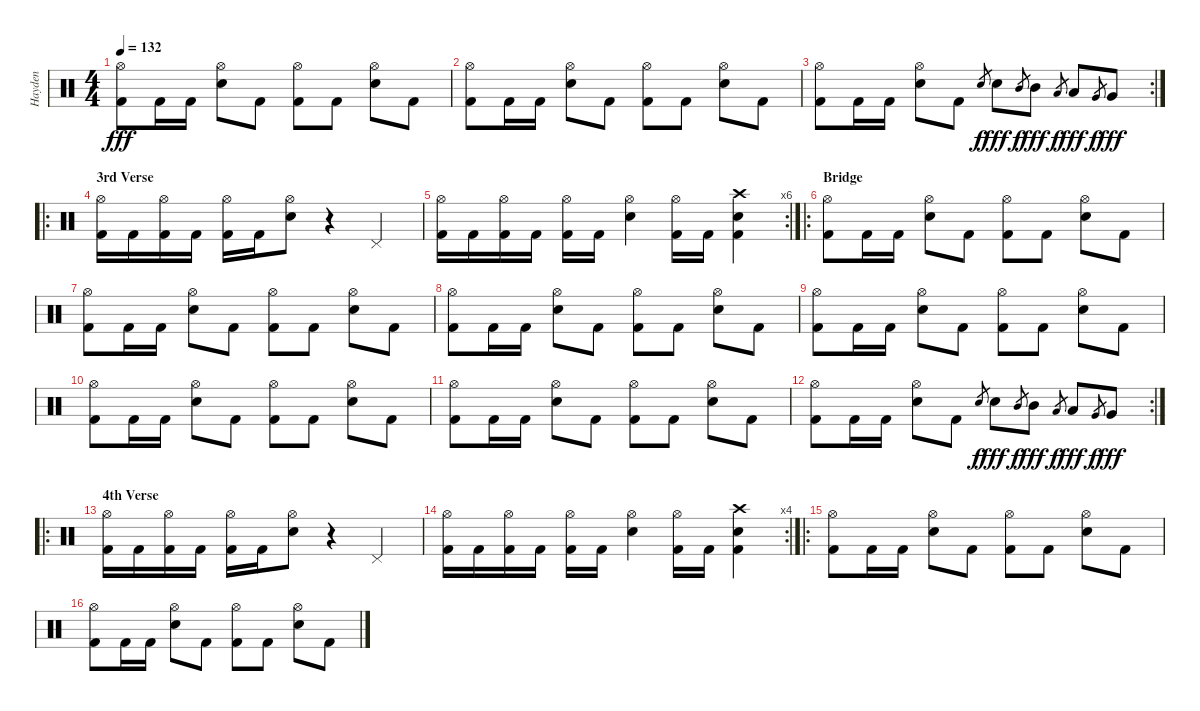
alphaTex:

\track ("Hayden" "Hayden") {instrument percussion}
\staff {score}
\articulation defaults
\ts (4 4)
\tempo 132
\clef neutral
\ks c
("Kick (hit) 2" "Hi-Hat (open)").8{dy fff} "Kick (hit) 2".16 "Kick (hit) 2".16 ("Hi-Hat (open)" "Electric Snare (hit)").8 "Kick (hit) 2".8 ("Hi-Hat (open)" "Kick (hit) 2").8 "Kick (hit) 2".8 ("Hi-Hat (open)" "Electric Snare (hit)").8 "Kick (hit) 2".8 |
("Kick (hit) 2" "Hi-Hat (open)").8 "Kick (hit) 2".16 "Kick (hit) 2".16 ("Hi-Hat (open)" "Electric Snare (hit)").8 "Kick (hit) 2".8 ("Hi-Hat (open)" "Kick (hit) 2").8 "Kick (hit) 2".8 ("Hi-Hat (open)" "Electric Snare (hit)").8 "Kick (hit) 2".8 |
\rc 2
("Kick (hit) 2" "Hi-Hat (open)").8 "Kick (hit) 2".16 "Kick (hit) 2".16 ("Hi-Hat (open)" "Electric Snare (hit)").8 "Kick (hit) 2".8 "Electric Snare (hit)".8{gr dy f} "Electric Snare (hit)".8{dy fff} "Mid Tom (hit)".8{gr dy f} "Mid Tom (hit)".8{dy fff} "Low Tom (hit)".8{gr dy f} "Low Tom (hit)".8{dy fff} "Very Low Tom (hit)".8{gr dy f} "Very Low Tom (hit)".8{dy fff} |
\ro
\section ("" "3rd Verse")
("Hi-Hat (open)" "Kick (hit) 2").16 "Kick (hit) 2".16 ("Hi-Hat (open)" "Kick (hit) 2").16 "Kick (hit) 2".16 ("Hi-Hat (open)" "Kick (hit) 2").16 "Kick (hit) 2".16 ("Hi-Hat (open)" "Electric Snare (hit)").8 r.4 "Pedal Hi-Hat (hit)".4 |
\rc 6
("Hi-Hat (open)" "Kick (hit) 2").16 "Kick (hit) 2".16 ("Hi-Hat (open)" "Kick (hit) 2").16 "Kick (hit) 2".16 ("Hi-Hat (open)" "Kick (hit) 2").16 "Kick (hit) 2".16 ("Hi-Hat (open)" "Electric Snare (hit)").4 ("Hi-Hat (open)" "Kick (hit) 2").16 "Kick (hit) 2".16 ("Crash high (hit)" "Electric Snare (hit)" "Kick (hit) 2").4 |
\ro
\section ("" "Bridge")
("Kick (hit) 2" "Hi-Hat (open)").8 "Kick (hit) 2".16 "Kick (hit) 2".16 ("Hi-Hat (open)" "Electric Snare (hit)").8 "Kick (hit) 2".8 ("Hi-Hat (open)" "Kick (hit) 2").8 "Kick (hit) 2".8 ("Hi-Hat (open)" "Electric Snare (hit)").8 "Kick (hit) 2".8 |
("Kick (hit) 2" "Hi-Hat (open)").8 "Kick (hit) 2".16 "Kick (hit) 2".16 ("Hi-Hat (open)" "Electric Snare (hit)").8 "Kick (hit) 2".8 ("Hi-Hat (open)" "Kick (hit) 2").8 "Kick (hit) 2".8 ("Hi-Hat (open)" "Electric Snare (hit)").8 "Kick (hit) 2".8 |
("Kick (hit) 2" "Hi-Hat (open)").8 "Kick (hit) 2".16 "Kick (hit) 2".16 ("Hi-Hat (open)" "Electric Snare (hit)").8 "Kick (hit) 2".8 ("Hi-Hat (open)" "Kick (hit) 2").8 "Kick (hit) 2".8 ("Hi-Hat (open)" "Electric Snare (hit)").8 "Kick (hit) 2".8 |
("Kick (hit) 2" "Hi-Hat (open)").8 "Kick (hit) 2".16 "Kick (hit) 2".16 ("Hi-Hat (open)" "Electric Snare (hit)").8 "Kick (hit) 2".8 ("Hi-Hat (open)" "Kick (hit) 2").8 "Kick (hit) 2".8 ("Hi-Hat (open)" "Electric Snare (hit)").8 "Kick (hit) 2".8 |
("Kick (hit) 2" "Hi-Hat (open)").8 "Kick (hit) 2".16 "Kick (hit) 2".16 ("Hi-Hat (open)" "Electric Snare (hit)").8 "Kick (hit) 2".8 ("Hi-Hat (open)" "Kick (hit) 2").8 "Kick (hit) 2".8 ("Hi-Hat (open)" "Electric Snare (hit)").8 "Kick (hit) 2".8 |
("Kick (hit) 2" "Hi-Hat (open)").8 "Kick (hit) 2".16 "Kick (hit) 2".16 ("Hi-Hat (open)" "Electric Snare (hit)").8 "Kick (hit) 2".8 ("Hi-Hat (open)" "Kick (hit) 2").8 "Kick (hit) 2".8 ("Hi-Hat (open)" "Electric Snare (hit)").8 "Kick (hit) 2".8 |
\rc 2
("Kick (hit) 2" "Hi-Hat (open)").8 "Kick (hit) 2".16 "Kick (hit) 2".16 ("Hi-Hat (open)" "Electric Snare (hit)").8 "Kick (hit) 2".8 "Electric Snare (hit)".8{gr dy f} "Electric Snare (hit)".8{dy fff} "Mid Tom (hit)".8{gr dy f} "Mid Tom (hit)".8{dy fff} "Low Tom (hit)".8{gr dy f} "Low Tom (hit)".8{dy fff} "Very Low Tom (hit)".8{gr dy f} "Very Low Tom (hit)".8{dy fff} |
\ro
\section ("" "4th Verse")
("Hi-Hat (open)" "Kick (hit) 2").16 "Kick (hit) 2".16 ("Hi-Hat (open)" "Kick (hit) 2").16 "Kick (hit) 2".16 ("Hi-Hat (open)" "Kick (hit) 2").16 "Kick (hit) 2".16 ("Hi-Hat (open)" "Electric Snare (hit)").8 r.4 "Pedal Hi-Hat (hit)".4 |
\rc 4
("Hi-Hat (open)" "Kick (hit) 2").16 "Kick (hit) 2".16 ("Hi-Hat (open)" "Kick (hit) 2").16 "Kick (hit) 2".16 ("Hi-Hat (open)" "Kick (hit) 2").16 "Kick (hit) 2".16 ("Hi-Hat (open)" "Electric Snare (hit)").4 ("Hi-Hat (open)" "Kick (hit) 2").16 "Kick (hit) 2".16 ("Crash high (hit)" "Electric Snare (hit)" "Kick (hit) 2").4 |
\ro
("Kick (hit) 2" "Hi-Hat (open)").8 "Kick (hit) 2".16 "Kick (hit) 2".16 ("Hi-Hat (open)" "Electric Snare (hit)").8 "Kick (hit) 2".8 ("Hi-Hat (open)" "Kick (hit) 2").8 "Kick (hit) 2".8 ("Hi-Hat (open)" "Electric Snare (hit)").8 "Kick (hit) 2".8 |
("Kick (hit) 2" "Hi-Hat (open)").8 "Kick (hit) 2".16 "Kick (hit) 2".16 ("Hi-Hat (open)" "Electric Snare (hit)").8 "Kick (hit) 2".8 ("Hi-Hat (open)" "Kick (hit) 2").8 "Kick (hit) 2".8 ("Hi-Hat (open)" "Electric Snare (hit)").8 "Kick (hit) 2".8
